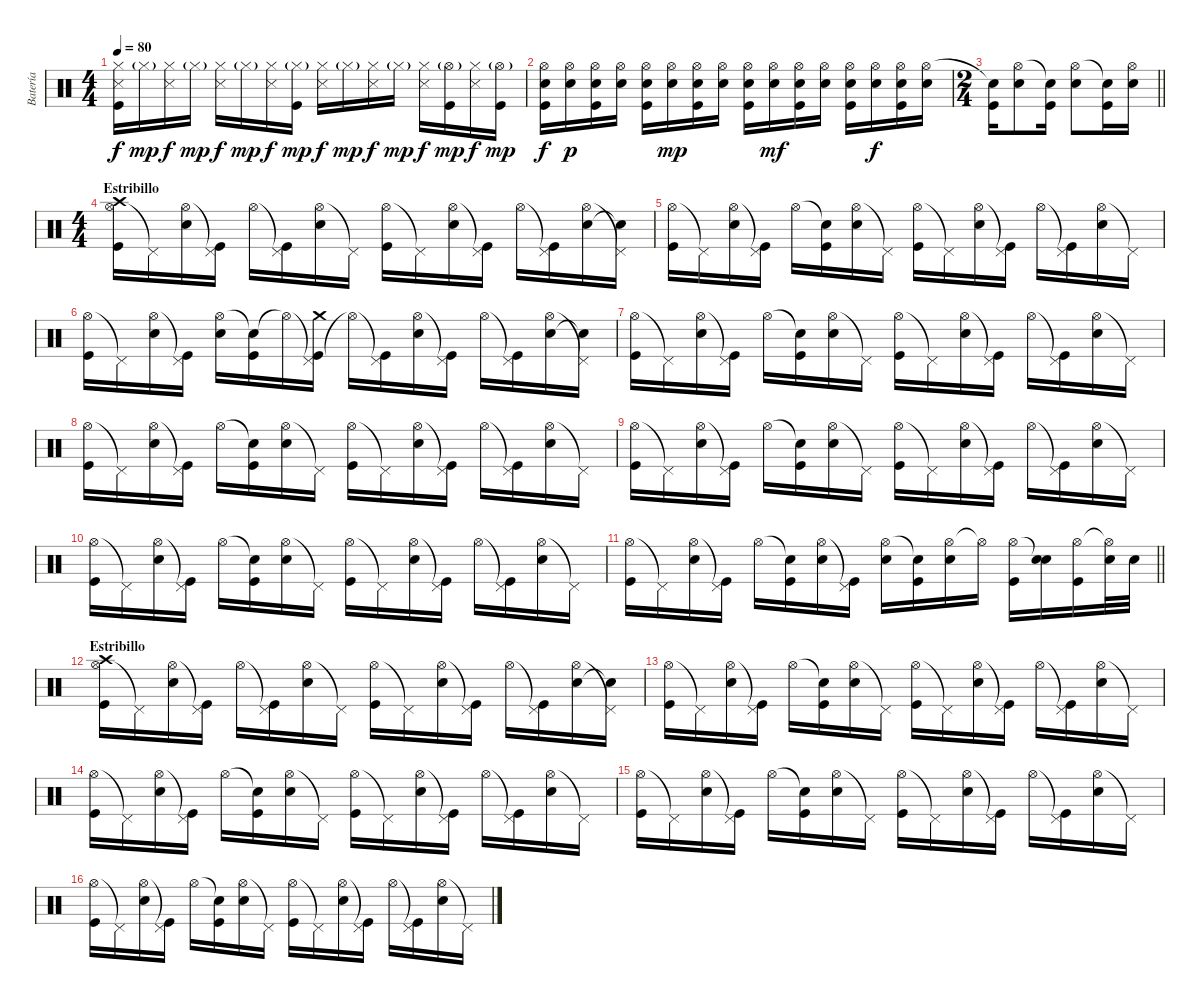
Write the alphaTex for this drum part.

\track ("Batería" "Batería") {instrument percussion}
\staff {score}
\articulation defaults
\ts (4 4)
\tempo 80
\clef neutral
\ks c
("Hi-Hat (closed)" "Kick (hit)" "Snare (side stick) 3").16{dy f} "Hi-Hat (closed)"{g}.16{dy mp} ("Hi-Hat (closed)" "Snare (side stick) 3").16{dy f} "Hi-Hat (closed)"{g}.16{dy mp} ("Hi-Hat (closed)" "Snare (side stick) 3").16{dy f} "Hi-Hat (closed)"{g}.16{dy mp} ("Hi-Hat (closed)" "Snare (side stick) 3").16{dy f} ("Hi-Hat (closed)"{g} "Kick (hit)").16{dy mp} ("Hi-Hat (closed)" "Snare (side stick) 3").16{dy f} "Hi-Hat (closed)"{g}.16{dy mp} ("Hi-Hat (closed)" "Snare (side stick) 3").16{dy f} "Hi-Hat (closed)"{g}.16{dy mp} ("Hi-Hat (closed)" "Snare (side stick) 3").16{dy f} ("Hi-Hat (open)"{g} "Kick (hit)").16{dy mp} ("Hi-Hat (closed)" "Snare (side stick) 3").16{dy f} ("Hi-Hat (open)"{g} "Kick (hit)").16{dy mp} |
("Hi-Hat (open)" "Electric Snare (hit)" "Kick (hit)").16{dy f} ("Hi-Hat (open)" "Electric Snare (hit)").16{dy p} ("Hi-Hat (open)" "Electric Snare (hit)" "Kick (hit)").16 ("Hi-Hat (open)" "Electric Snare (hit)").16 ("Hi-Hat (open)" "Electric Snare (hit)" "Kick (hit)").16 ("Hi-Hat (open)" "Electric Snare (hit)").16{dy mp} ("Hi-Hat (open)" "Electric Snare (hit)" "Kick (hit)").16 ("Hi-Hat (open)" "Electric Snare (hit)").16 ("Hi-Hat (open)" "Electric Snare (hit)" "Kick (hit)").16 ("Hi-Hat (open)" "Electric Snare (hit)").16{dy mf} ("Hi-Hat (open)" "Electric Snare (hit)" "Kick (hit)").16 ("Hi-Hat (open)" "Electric Snare (hit)").16 ("Hi-Hat (open)" "Electric Snare (hit)" "Kick (hit)").16 ("Hi-Hat (open)" "Electric Snare (hit)").16{dy f} ("Hi-Hat (open)" "Electric Snare (hit)" "Kick (hit)").16 ("Hi-Hat (open)" "Electric Snare (hit)").16 |
\ts (2 4)
\barLineRight lightlight
("Snare (hit)"{t} "Kick (hit)").16 ("Hi-Hat (open)" "Electric Snare (hit)").8 ("Snare (hit)"{t} "Kick (hit)").16 ("Hi-Hat (open)" "Electric Snare (hit)").8 ("Snare (hit)"{t} "Kick (hit)").16 ("Hi-Hat (open)" "Electric Snare (hit)").16 |
\ts (4 4)
\section ("" "Estribillo")
("Hi-Hat (open)" "Kick (hit)" "Crash high (hit)").16 "Pedal Hi-Hat (hit)"{t}.16 ("Hi-Hat (open)" "Electric Snare (hit)").16 ("Pedal Hi-Hat (hit)"{t} "Kick (hit)").16 "Hi-Hat (open)".16 ("Pedal Hi-Hat (hit)"{t} "Kick (hit)").16 ("Hi-Hat (open)" "Electric Snare (hit)").16 "Pedal Hi-Hat (hit)"{t}.16 ("Hi-Hat (open)" "Kick (hit)").16 "Pedal Hi-Hat (hit)"{t}.16 ("Hi-Hat (open)" "Electric Snare (hit)").16 ("Pedal Hi-Hat (hit)"{t} "Kick (hit)").16 "Hi-Hat (open)".16 ("Pedal Hi-Hat (hit)"{t} "Kick (hit)").16 ("Hi-Hat (open)" "Electric Snare (hit)").16 ("Pedal Hi-Hat (hit)"{t} "Snare (hit)"{t}).16 |
("Hi-Hat (open)" "Kick (hit)").16 "Pedal Hi-Hat (hit)"{t}.16 ("Hi-Hat (open)" "Electric Snare (hit)").16 ("Pedal Hi-Hat (hit)"{t} "Kick (hit)").16 "Hi-Hat (open)".16 ("Snare (hit)"{t} "Kick (hit)").16 ("Hi-Hat (open)" "Electric Snare (hit)").16 "Pedal Hi-Hat (hit)"{t}.16 ("Hi-Hat (open)" "Kick (hit)").16 "Pedal Hi-Hat (hit)"{t}.16 ("Hi-Hat (open)" "Electric Snare (hit)").16 ("Pedal Hi-Hat (hit)"{t} "Kick (hit)").16 "Hi-Hat (open)".16 ("Pedal Hi-Hat (hit)"{t} "Kick (hit)").16 ("Hi-Hat (open)" "Electric Snare (hit)").16 "Pedal Hi-Hat (hit)"{t}.16 |
("Hi-Hat (open)" "Kick (hit)").16 "Pedal Hi-Hat (hit)"{t}.16 ("Hi-Hat (open)" "Electric Snare (hit)").16 ("Pedal Hi-Hat (hit)"{t} "Kick (hit)").16 ("Hi-Hat (open)" "Electric Snare (hit)").16 ("Snare (hit)"{t} "Kick (hit)").16 "Hi-Hat (open)"{t}.16 ("Pedal Hi-Hat (hit)"{t} "Kick (hit)" "Crash medium (hit)").16 "Hi-Hat (open)"{t}.16 ("Pedal Hi-Hat (hit)"{t} "Kick (hit)").16 ("Hi-Hat (open)" "Electric Snare (hit)").16 ("Pedal Hi-Hat (hit)"{t} "Kick (hit)").16 "Hi-Hat (open)".16 ("Pedal Hi-Hat (hit)"{t} "Kick (hit)").16 ("Hi-Hat (open)" "Electric Snare (hit)").16 ("Pedal Hi-Hat (hit)"{t} "Snare (hit)"{t}).16 |
("Hi-Hat (open)" "Kick (hit)").16 "Pedal Hi-Hat (hit)"{t}.16 ("Hi-Hat (open)" "Electric Snare (hit)").16 ("Pedal Hi-Hat (hit)"{t} "Kick (hit)").16 "Hi-Hat (open)".16 ("Snare (hit)"{t} "Kick (hit)").16 ("Hi-Hat (open)" "Electric Snare (hit)").16 "Pedal Hi-Hat (hit)"{t}.16 ("Hi-Hat (open)" "Kick (hit)").16 "Pedal Hi-Hat (hit)"{t}.16 ("Hi-Hat (open)" "Electric Snare (hit)").16 ("Pedal Hi-Hat (hit)"{t} "Kick (hit)").16 "Hi-Hat (open)".16 ("Pedal Hi-Hat (hit)"{t} "Kick (hit)").16 ("Hi-Hat (open)" "Electric Snare (hit)").16 "Pedal Hi-Hat (hit)"{t}.16 |
("Hi-Hat (open)" "Kick (hit)").16 "Pedal Hi-Hat (hit)"{t}.16 ("Hi-Hat (open)" "Electric Snare (hit)").16 ("Pedal Hi-Hat (hit)"{t} "Kick (hit)").16 "Hi-Hat (open)".16 ("Snare (hit)"{t} "Kick (hit)").16 ("Hi-Hat (open)" "Electric Snare (hit)").16 "Pedal Hi-Hat (hit)"{t}.16 ("Hi-Hat (open)" "Kick (hit)").16 "Pedal Hi-Hat (hit)"{t}.16 ("Hi-Hat (open)" "Electric Snare (hit)").16 ("Pedal Hi-Hat (hit)"{t} "Kick (hit)").16 "Hi-Hat (open)".16 ("Pedal Hi-Hat (hit)"{t} "Kick (hit)").16 ("Hi-Hat (open)" "Electric Snare (hit)").16 "Pedal Hi-Hat (hit)"{t}.16 |
("Hi-Hat (open)" "Kick (hit)").16 "Pedal Hi-Hat (hit)"{t}.16 ("Hi-Hat (open)" "Electric Snare (hit)").16 ("Pedal Hi-Hat (hit)"{t} "Kick (hit)").16 "Hi-Hat (open)".16 ("Snare (hit)"{t} "Kick (hit)").16 ("Hi-Hat (open)" "Electric Snare (hit)").16 "Pedal Hi-Hat (hit)"{t}.16 ("Hi-Hat (open)" "Kick (hit)").16 "Pedal Hi-Hat (hit)"{t}.16 ("Hi-Hat (open)" "Electric Snare (hit)").16 ("Pedal Hi-Hat (hit)"{t} "Kick (hit)").16 "Hi-Hat (open)".16 ("Pedal Hi-Hat (hit)"{t} "Kick (hit)").16 ("Hi-Hat (open)" "Electric Snare (hit)").16 "Pedal Hi-Hat (hit)"{t}.16 |
("Hi-Hat (open)" "Kick (hit)").16 "Pedal Hi-Hat (hit)"{t}.16 ("Hi-Hat (open)" "Electric Snare (hit)").16 ("Pedal Hi-Hat (hit)"{t} "Kick (hit)").16 "Hi-Hat (open)".16 ("Snare (hit)"{t} "Kick (hit)").16 ("Hi-Hat (open)" "Electric Snare (hit)").16 "Pedal Hi-Hat (hit)"{t}.16 ("Hi-Hat (open)" "Kick (hit)").16 "Pedal Hi-Hat (hit)"{t}.16 ("Hi-Hat (open)" "Electric Snare (hit)").16 ("Pedal Hi-Hat (hit)"{t} "Kick (hit)").16 "Hi-Hat (open)".16 ("Pedal Hi-Hat (hit)"{t} "Kick (hit)").16 ("Hi-Hat (open)" "Electric Snare (hit)").16 "Pedal Hi-Hat (hit)"{t}.16 |
\barLineRight lightlight
("Hi-Hat (open)" "Kick (hit)").16 "Pedal Hi-Hat (hit)"{t}.16 ("Hi-Hat (open)" "Electric Snare (hit)").16 ("Pedal Hi-Hat (hit)"{t} "Kick (hit)").16 "Hi-Hat (open)".16 ("Snare (hit)"{t} "Kick (hit)").16 ("Hi-Hat (open)" "Electric Snare (hit)").16 ("Pedal Hi-Hat (hit)"{t} "Kick (hit)").16 ("Hi-Hat (open)" "Electric Snare (hit)").16 ("Snare (hit)"{t} "Kick (hit)").16 ("Hi-Hat (open)" "Electric Snare (hit)").16 "Hi-Hat (open)"{t}.16 ("Hi-Hat (open)" "Kick (hit)").16 ("Snare (hit)"{t} "Electric Snare (hit)").16 ("Hi-Hat (open)" "Kick (hit)").16 ("Hi-Hat (open)"{t} "Electric Snare (hit)").32 "Electric Snare (hit)".32 |
\section ("" "Estribillo")
("Hi-Hat (open)" "Kick (hit)" "Crash high (hit)").16 "Pedal Hi-Hat (hit)"{t}.16 ("Hi-Hat (open)" "Electric Snare (hit)").16 ("Pedal Hi-Hat (hit)"{t} "Kick (hit)").16 "Hi-Hat (open)".16 ("Pedal Hi-Hat (hit)"{t} "Kick (hit)").16 ("Hi-Hat (open)" "Electric Snare (hit)").16 "Pedal Hi-Hat (hit)"{t}.16 ("Hi-Hat (open)" "Kick (hit)").16 "Pedal Hi-Hat (hit)"{t}.16 ("Hi-Hat (open)" "Electric Snare (hit)").16 ("Pedal Hi-Hat (hit)"{t} "Kick (hit)").16 "Hi-Hat (open)".16 ("Pedal Hi-Hat (hit)"{t} "Kick (hit)").16 ("Hi-Hat (open)" "Electric Snare (hit)").16 ("Pedal Hi-Hat (hit)"{t} "Snare (hit)"{t}).16 |
("Hi-Hat (open)" "Kick (hit)").16 "Pedal Hi-Hat (hit)"{t}.16 ("Hi-Hat (open)" "Electric Snare (hit)").16 ("Pedal Hi-Hat (hit)"{t} "Kick (hit)").16 "Hi-Hat (open)".16 ("Snare (hit)"{t} "Kick (hit)").16 ("Hi-Hat (open)" "Electric Snare (hit)").16 "Pedal Hi-Hat (hit)"{t}.16 ("Hi-Hat (open)" "Kick (hit)").16 "Pedal Hi-Hat (hit)"{t}.16 ("Hi-Hat (open)" "Electric Snare (hit)").16 ("Pedal Hi-Hat (hit)"{t} "Kick (hit)").16 "Hi-Hat (open)".16 ("Pedal Hi-Hat (hit)"{t} "Kick (hit)").16 ("Hi-Hat (open)" "Electric Snare (hit)").16 "Pedal Hi-Hat (hit)"{t}.16 |
("Hi-Hat (open)" "Kick (hit)").16 "Pedal Hi-Hat (hit)"{t}.16 ("Hi-Hat (open)" "Electric Snare (hit)").16 ("Pedal Hi-Hat (hit)"{t} "Kick (hit)").16 "Hi-Hat (open)".16 ("Snare (hit)"{t} "Kick (hit)").16 ("Hi-Hat (open)" "Electric Snare (hit)").16 "Pedal Hi-Hat (hit)"{t}.16 ("Hi-Hat (open)" "Kick (hit)").16 "Pedal Hi-Hat (hit)"{t}.16 ("Hi-Hat (open)" "Electric Snare (hit)").16 ("Pedal Hi-Hat (hit)"{t} "Kick (hit)").16 "Hi-Hat (open)".16 ("Pedal Hi-Hat (hit)"{t} "Kick (hit)").16 ("Hi-Hat (open)" "Electric Snare (hit)").16 "Pedal Hi-Hat (hit)"{t}.16 |
("Hi-Hat (open)" "Kick (hit)").16 "Pedal Hi-Hat (hit)"{t}.16 ("Hi-Hat (open)" "Electric Snare (hit)").16 ("Pedal Hi-Hat (hit)"{t} "Kick (hit)").16 "Hi-Hat (open)".16 ("Snare (hit)"{t} "Kick (hit)").16 ("Hi-Hat (open)" "Electric Snare (hit)").16 "Pedal Hi-Hat (hit)"{t}.16 ("Hi-Hat (open)" "Kick (hit)").16 "Pedal Hi-Hat (hit)"{t}.16 ("Hi-Hat (open)" "Electric Snare (hit)").16 ("Pedal Hi-Hat (hit)"{t} "Kick (hit)").16 "Hi-Hat (open)".16 ("Pedal Hi-Hat (hit)"{t} "Kick (hit)").16 ("Hi-Hat (open)" "Electric Snare (hit)").16 "Pedal Hi-Hat (hit)"{t}.16 |
("Hi-Hat (open)" "Kick (hit)").16 "Pedal Hi-Hat (hit)"{t}.16 ("Hi-Hat (open)" "Electric Snare (hit)").16 ("Pedal Hi-Hat (hit)"{t} "Kick (hit)").16 "Hi-Hat (open)".16 ("Snare (hit)"{t} "Kick (hit)").16 ("Hi-Hat (open)" "Electric Snare (hit)").16 "Pedal Hi-Hat (hit)"{t}.16 ("Hi-Hat (open)" "Kick (hit)").16 "Pedal Hi-Hat (hit)"{t}.16 ("Hi-Hat (open)" "Electric Snare (hit)").16 ("Pedal Hi-Hat (hit)"{t} "Kick (hit)").16 "Hi-Hat (open)".16 ("Pedal Hi-Hat (hit)"{t} "Kick (hit)").16 ("Hi-Hat (open)" "Electric Snare (hit)").16 "Pedal Hi-Hat (hit)"{t}.16
